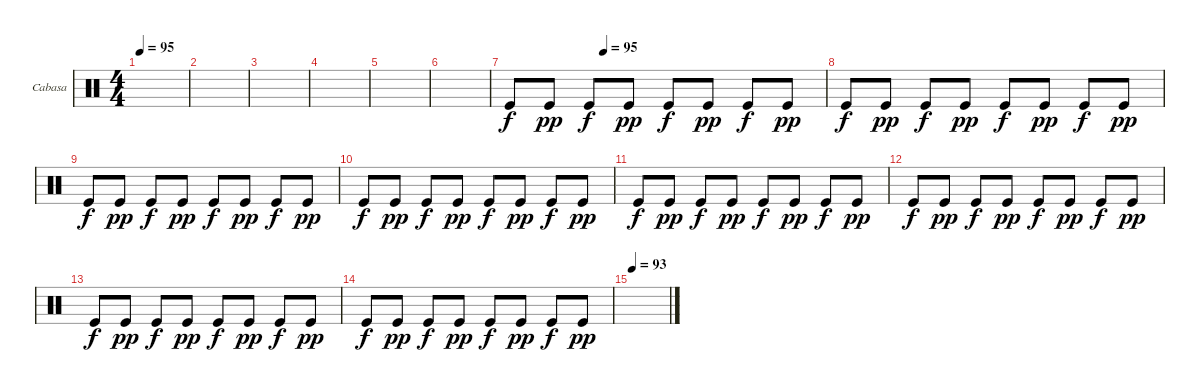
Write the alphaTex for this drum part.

\defaultSystemsLayout 4
\bracketExtendMode groupsimilarinstruments
\firstSystemTrackNameOrientation horizontal
\otherSystemsTrackNameOrientation horizontal
\track ("Cabasa" "Cabasa") {instrument percussion}
\staff {score}
\articulation defaults
\ts (4 4)
\tempo 95
\clef neutral
\ks c
|
|
|
|
|
|
\tempo (95 0.3)
"Kick (hit)".8{dy f} "Kick (hit)".8{dy pp} "Kick (hit)".8{dy f} "Kick (hit)".8{dy pp} "Kick (hit)".8{dy f} "Kick (hit)".8{dy pp} "Kick (hit)".8{dy f} "Kick (hit)".8{dy pp} |
"Kick (hit)".8{dy f} "Kick (hit)".8{dy pp} "Kick (hit)".8{dy f} "Kick (hit)".8{dy pp} "Kick (hit)".8{dy f} "Kick (hit)".8{dy pp} "Kick (hit)".8{dy f} "Kick (hit)".8{dy pp} |
"Kick (hit)".8{dy f} "Kick (hit)".8{dy pp} "Kick (hit)".8{dy f} "Kick (hit)".8{dy pp} "Kick (hit)".8{dy f} "Kick (hit)".8{dy pp} "Kick (hit)".8{dy f} "Kick (hit)".8{dy pp} |
"Kick (hit)".8{dy f} "Kick (hit)".8{dy pp} "Kick (hit)".8{dy f} "Kick (hit)".8{dy pp} "Kick (hit)".8{dy f} "Kick (hit)".8{dy pp} "Kick (hit)".8{dy f} "Kick (hit)".8{dy pp} |
"Kick (hit)".8{dy f} "Kick (hit)".8{dy pp} "Kick (hit)".8{dy f} "Kick (hit)".8{dy pp} "Kick (hit)".8{dy f} "Kick (hit)".8{dy pp} "Kick (hit)".8{dy f} "Kick (hit)".8{dy pp} |
"Kick (hit)".8{dy f} "Kick (hit)".8{dy pp} "Kick (hit)".8{dy f} "Kick (hit)".8{dy pp} "Kick (hit)".8{dy f} "Kick (hit)".8{dy pp} "Kick (hit)".8{dy f} "Kick (hit)".8{dy pp} |
"Kick (hit)".8{dy f} "Kick (hit)".8{dy pp} "Kick (hit)".8{dy f} "Kick (hit)".8{dy pp} "Kick (hit)".8{dy f} "Kick (hit)".8{dy pp} "Kick (hit)".8{dy f} "Kick (hit)".8{dy pp} |
"Kick (hit)".8{dy f} "Kick (hit)".8{dy pp} "Kick (hit)".8{dy f} "Kick (hit)".8{dy pp} "Kick (hit)".8{dy f} "Kick (hit)".8{dy pp} "Kick (hit)".8{dy f} "Kick (hit)".8{dy pp} |
\tempo (93 0.00625)
